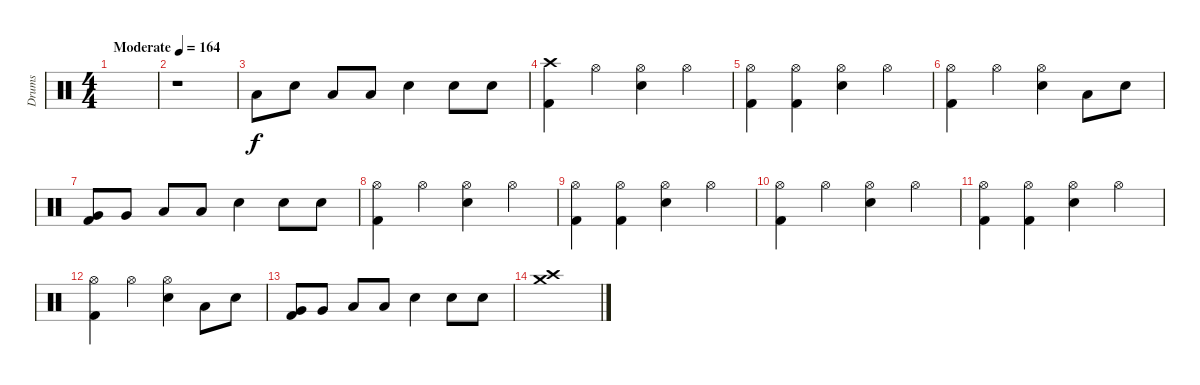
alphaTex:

\track ("Drums" "Drums") {instrument percussion}
\staff {score}
\articulation defaults
\ts (4 4)
\tempo (164 "Moderate")
\clef neutral
\ks c
|
r.1 |
"Low Floor Tom (hit)".8 "Snare (hit) 2".8 "Low Tom (hit)".8 "Low Tom (hit)".8 "Snare (hit) 2".4 "Snare (hit) 2".8 "Snare (hit) 2".8 |
("Crash high (hit)" "Kick (hit) 2").4 "Hi-Hat (open)".4 ("Hi-Hat (open)" "Snare (hit) 2").4 "Hi-Hat (open)".4 |
("Hi-Hat (open)" "Kick (hit) 2").4 ("Hi-Hat (open)" "Kick (hit) 2").4 ("Hi-Hat (open)" "Snare (hit) 2").4 "Hi-Hat (open)".4 |
("Hi-Hat (open)" "Kick (hit) 2").4 "Hi-Hat (open)".4 ("Hi-Hat (open)" "Snare (hit) 2").4 "Low Tom (hit)".8 "Snare (hit) 2".8 |
("Kick (hit) 2" "Very Low Tom (hit)").8 "Very Low Tom (hit)".8 "Low Floor Tom (hit)".8 "Low Floor Tom (hit)".8 "Snare (hit) 2".4 "Snare (hit) 2".8 "Snare (hit) 2".8 |
("Hi-Hat (open)" "Kick (hit) 2").4 "Hi-Hat (open)".4 ("Hi-Hat (open)" "Snare (hit) 2").4 "Hi-Hat (open)".4 |
("Hi-Hat (open)" "Kick (hit) 2").4 ("Hi-Hat (open)" "Kick (hit) 2").4 ("Hi-Hat (open)" "Snare (hit) 2").4 "Hi-Hat (open)".4 |
("Hi-Hat (open)" "Kick (hit) 2").4 "Hi-Hat (open)".4 ("Hi-Hat (open)" "Snare (hit) 2").4 "Hi-Hat (open)".4 |
("Hi-Hat (open)" "Kick (hit) 2").4 ("Hi-Hat (open)" "Kick (hit) 2").4 ("Hi-Hat (open)" "Snare (hit) 2").4 "Hi-Hat (open)".4 |
("Hi-Hat (open)" "Kick (hit) 2").4 "Hi-Hat (open)".4 ("Hi-Hat (open)" "Snare (hit) 2").4 "Low Tom (hit)".8 "Snare (hit) 2".8 |
("Kick (hit) 2" "Very Low Tom (hit)").8 "Very Low Tom (hit)".8 "Low Floor Tom (hit)".8 "Low Floor Tom (hit)".8 "Snare (hit) 2".4 "Snare (hit) 2".8 "Snare (hit) 2".8 |
("Crash high (hit)" "Crash medium (hit)").1
